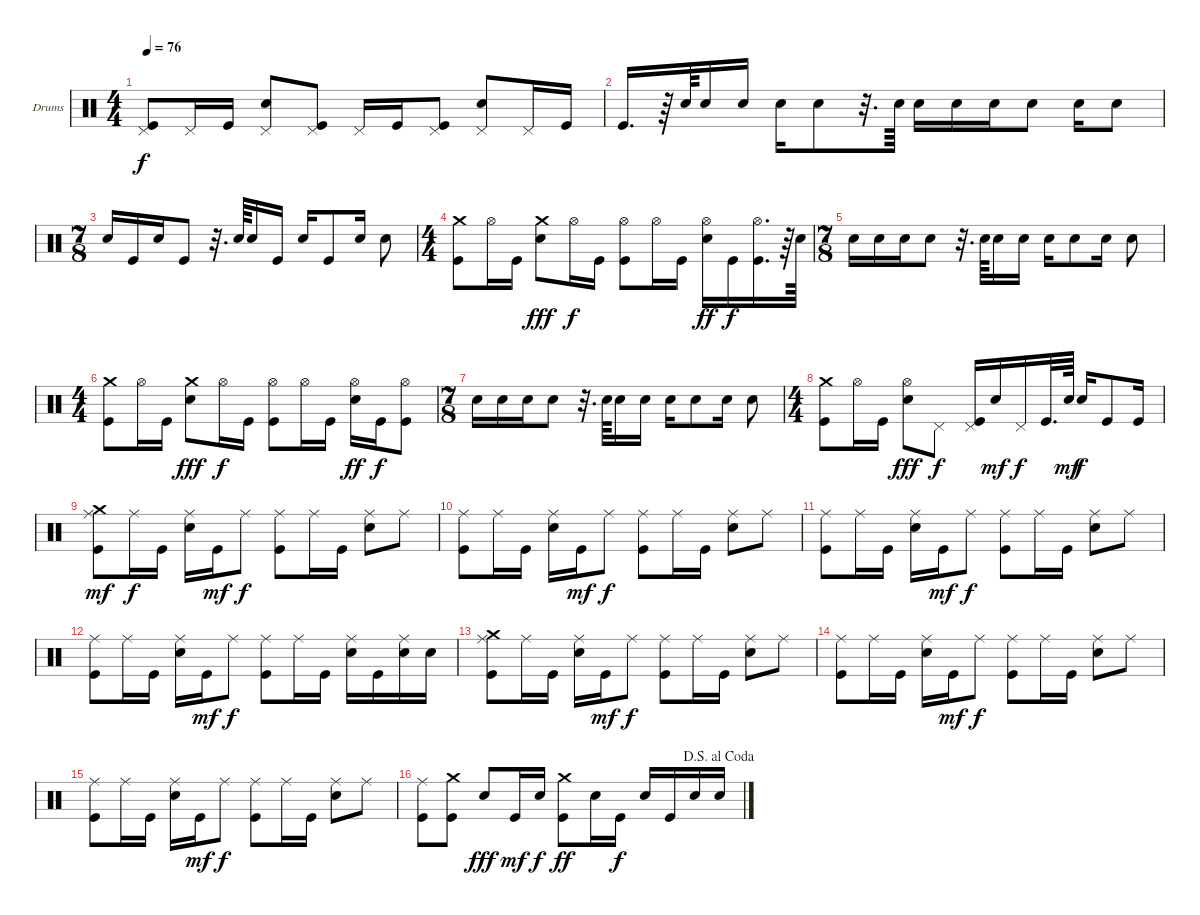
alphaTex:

\bracketExtendMode groupsimilarinstruments
\firstSystemTrackNameOrientation horizontal
\otherSystemsTrackNameOrientation horizontal
\track ("Drumkit" "Drums") {instrument percussion}
\staff {score}
\articulation defaults
\ts (4 4)
\tempo 76
\clef neutral
\ks c
("Pedal Hi-Hat (hit)" "Kick (hit)").8{dy f} "Pedal Hi-Hat (hit)".16 "Kick (hit)".16 ("Pedal Hi-Hat (hit)" "Snare (hit) 2").8 ("Pedal Hi-Hat (hit)" "Kick (hit)").8 "Pedal Hi-Hat (hit)".16 "Kick (hit)".16 ("Pedal Hi-Hat (hit)" "Kick (hit)").8 ("Pedal Hi-Hat (hit)" "Snare (hit) 2").8 "Pedal Hi-Hat (hit)".16 "Kick (hit)".16 |
"Kick (hit)".16{d} r.64 "Snare (hit) 2".64 "Snare (hit) 2".16 "Snare (hit) 2".16 "Snare (hit) 2".16 "Snare (hit) 2".8 r.32{d} "Snare (hit) 2".64 "Snare (hit) 2".16 "Snare (hit) 2".16 "Snare (hit) 2".16 "Snare (hit) 2".8 "Snare (hit) 2".16 "Snare (hit) 2".8 |
\ts (7 8)
\beaming (8 2 2 2 2)
"Snare (hit) 2".16 "Kick (hit)".16 "Snare (hit) 2".16 "Kick (hit)".8 r.32{d} "Snare (hit) 2".64 "Snare (hit) 2".16 "Kick (hit)".16 "Snare (hit) 2".16 "Kick (hit)".8 "Snare (hit) 2".16 "Snare (hit) 2".8 |
\ts (4 4)
\beaming (8 2 2 2 2)
("Crash medium (hit)" "Kick (hit)").8 "Hi-Hat (open)".16 "Kick (hit)".16 ("Crash medium (hit)" "Snare (hit) 2").8{dy fff} "Hi-Hat (open)".16{dy f} "Kick (hit)".16 ("Kick (hit)" "Hi-Hat (open)").8 "Hi-Hat (open)".16 "Kick (hit)".16 ("Snare (hit) 2" "Hi-Hat (open)").16{dy ff} "Kick (hit)".16{dy f} ("Kick (hit)" "Hi-Hat (open)").16{d} r.64 "Snare (hit) 2".64 |
\ts (7 8)
\beaming (8 2 2 2 2)
"Snare (hit) 2".16 "Snare (hit) 2".16 "Snare (hit) 2".16 "Snare (hit) 2".8 r.32{d} "Snare (hit) 2".64 "Snare (hit) 2".16 "Snare (hit) 2".16 "Snare (hit) 2".16 "Snare (hit) 2".8 "Snare (hit) 2".16 "Snare (hit) 2".8 |
\ts (4 4)
\beaming (8 2 2 2 2)
("Crash medium (hit)" "Kick (hit)").8 "Hi-Hat (open)".16 "Kick (hit)".16 ("Crash medium (hit)" "Snare (hit) 2").8{dy fff} "Hi-Hat (open)".16{dy f} "Kick (hit)".16 ("Kick (hit)" "Hi-Hat (open)").8 "Hi-Hat (open)".16 "Kick (hit)".16 ("Snare (hit) 2" "Hi-Hat (open)").16{dy ff} "Kick (hit)".16{dy f} ("Kick (hit)" "Hi-Hat (open)").8 |
\ts (7 8)
\beaming (8 2 2 2 2)
"Snare (hit) 2".16 "Snare (hit) 2".16 "Snare (hit) 2".16 "Snare (hit) 2".8 r.32{d} "Snare (hit) 2".64 "Snare (hit) 2".16 "Snare (hit) 2".16 "Snare (hit) 2".16 "Snare (hit) 2".8 "Snare (hit) 2".16 "Snare (hit) 2".8 |
\ts (4 4)
\beaming (8 2 2 2 2)
("Crash medium (hit)" "Kick (hit)").8 "Hi-Hat (open)".16 "Kick (hit)".16 ("Hi-Hat (open)" "Snare (hit) 2").8{dy fff} "Pedal Hi-Hat (hit)".8{dy f} ("Kick (hit)" "Pedal Hi-Hat (hit)").16 "Snare (hit) 2".16{dy mf} "Pedal Hi-Hat (hit)".16{dy f} "Kick (hit)".32{d} "Snare (hit) 2".64{dy mf} "Snare (hit) 2".16{dy f} "Kick (hit)".8 "Kick (hit)".16 |
("Crash medium (hit)" "Kick (hit)" "Ride (middle)").8{dy mf} "Ride (middle)".16{dy f} "Kick (hit)".16 ("Snare (hit) 2" "Ride (middle)").16 "Kick (hit)".16{dy mf} "Ride (middle)".8{dy f} ("Kick (hit)" "Ride (middle)").8 "Ride (middle)".16 "Kick (hit)".16 ("Snare (hit) 2" "Ride (middle)").8 "Ride (middle)".8 |
("Ride (middle)" "Kick (hit)").8 "Ride (middle)".16 "Kick (hit)".16 ("Ride (middle)" "Snare (hit) 2").16 "Kick (hit)".16{dy mf} "Ride (middle)".8{dy f} ("Ride (middle)" "Kick (hit)").8 "Ride (middle)".16 "Kick (hit)".16 ("Ride (middle)" "Snare (hit) 2").8 "Ride (middle)".8 |
("Ride (middle)" "Kick (hit)").8 "Ride (middle)".16 "Kick (hit)".16 ("Ride (middle)" "Snare (hit) 2").16 "Kick (hit)".16{dy mf} "Ride (middle)".8{dy f} ("Ride (middle)" "Kick (hit)").8 "Ride (middle)".16 "Kick (hit)".16 ("Ride (middle)" "Snare (hit) 2").8 "Ride (middle)".8 |
("Ride (middle)" "Kick (hit)").8 "Ride (middle)".16 "Kick (hit)".16 ("Ride (middle)" "Snare (hit) 2").16 "Kick (hit)".16{dy mf} "Ride (middle)".8{dy f} ("Ride (middle)" "Kick (hit)").8 "Ride (middle)".16 "Kick (hit)".16 ("Ride (middle)" "Snare (hit) 2").16 "Kick (hit)".16 ("Ride (middle)" "Snare (hit) 2").16 "Snare (hit) 2".16 |
("Ride (middle)" "Crash medium (hit)" "Kick (hit)").8 "Ride (middle)".16 "Kick (hit)".16 ("Ride (middle)" "Snare (hit) 2").16 "Kick (hit)".16{dy mf} "Ride (middle)".8{dy f} ("Ride (middle)" "Kick (hit)").8 "Ride (middle)".16 "Kick (hit)".16 ("Ride (middle)" "Snare (hit) 2").8 "Ride (middle)".8 |
("Ride (middle)" "Kick (hit)").8 "Ride (middle)".16 "Kick (hit)".16 ("Ride (middle)" "Snare (hit) 2").16 "Kick (hit)".16{dy mf} "Ride (middle)".8{dy f} ("Ride (middle)" "Kick (hit)").8 "Ride (middle)".16 "Kick (hit)".16 ("Ride (middle)" "Snare (hit) 2").8 "Ride (middle)".8 |
("Ride (middle)" "Kick (hit)").8 "Ride (middle)".16 "Kick (hit)".16 ("Ride (middle)" "Snare (hit) 2").16 "Kick (hit)".16{dy mf} "Ride (middle)".8{dy f} ("Ride (middle)" "Kick (hit)").8 "Ride (middle)".16 "Kick (hit)".16 ("Ride (middle)" "Snare (hit) 2").8 "Ride (middle)".8 |
\jump dalsegnoalcoda
("Ride (middle)" "Kick (hit)").8 ("Kick (hit)" "Crash medium (hit)").8 "Snare (hit) 2".8{dy fff} "Kick (hit)".16{dy mf} "Snare (hit) 2".16{dy f} ("Crash medium (hit)" "Kick (hit)").8{dy ff} "Snare (hit) 2".16 "Kick (hit)".16{dy f} "Snare (hit) 2".16 "Kick (hit)".16 "Snare (hit) 2".16 "Snare (hit) 2".16
